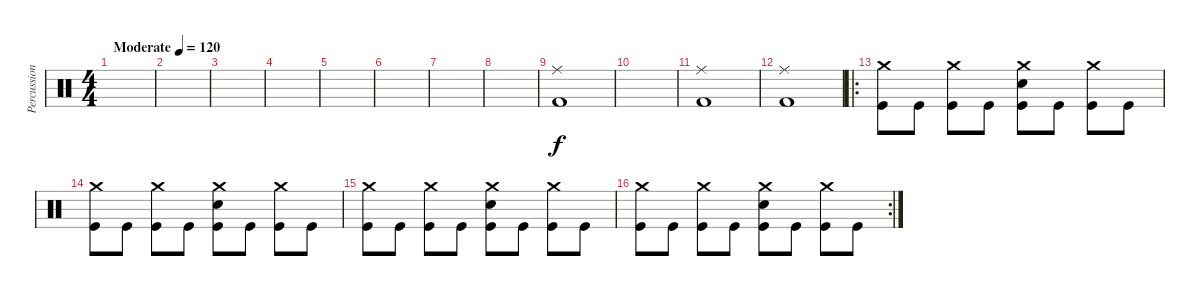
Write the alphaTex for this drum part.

\track ("Percussion" "Percussion") {instrument percussion}
\staff {score}
\articulation defaults
\ts (4 4)
\tempo (120 "Moderate")
\clef neutral
\ks c
|
|
|
|
|
|
|
|
("Ride (middle)" "Kick (hit) 2").1 |
|
("Ride (middle)" "Kick (hit) 2").1 |
("Ride (middle)" "Kick (hit) 2").1 |
\ro
("Crash medium (hit)" "Kick (hit)").8 "Kick (hit)".8 ("Crash medium (hit)" "Kick (hit)").8 "Kick (hit)".8 ("Crash medium (hit)" "Snare (hit) 2" "Kick (hit)").8 "Kick (hit)".8 ("Crash medium (hit)" "Kick (hit)").8 "Kick (hit)".8 |
("Crash medium (hit)" "Kick (hit)").8 "Kick (hit)".8 ("Crash medium (hit)" "Kick (hit)").8 "Kick (hit)".8 ("Crash medium (hit)" "Snare (hit) 2" "Kick (hit)").8 "Kick (hit)".8 ("Crash medium (hit)" "Kick (hit)").8 "Kick (hit)".8 |
("Crash medium (hit)" "Kick (hit)").8 "Kick (hit)".8 ("Crash medium (hit)" "Kick (hit)").8 "Kick (hit)".8 ("Crash medium (hit)" "Snare (hit) 2" "Kick (hit)").8 "Kick (hit)".8 ("Crash medium (hit)" "Kick (hit)").8 "Kick (hit)".8 |
\rc 2
("Crash medium (hit)" "Kick (hit)").8 "Kick (hit)".8 ("Crash medium (hit)" "Kick (hit)").8 "Kick (hit)".8 ("Crash medium (hit)" "Snare (hit) 2" "Kick (hit)").8 "Kick (hit)".8 ("Crash medium (hit)" "Kick (hit)").8 "Kick (hit)".8
